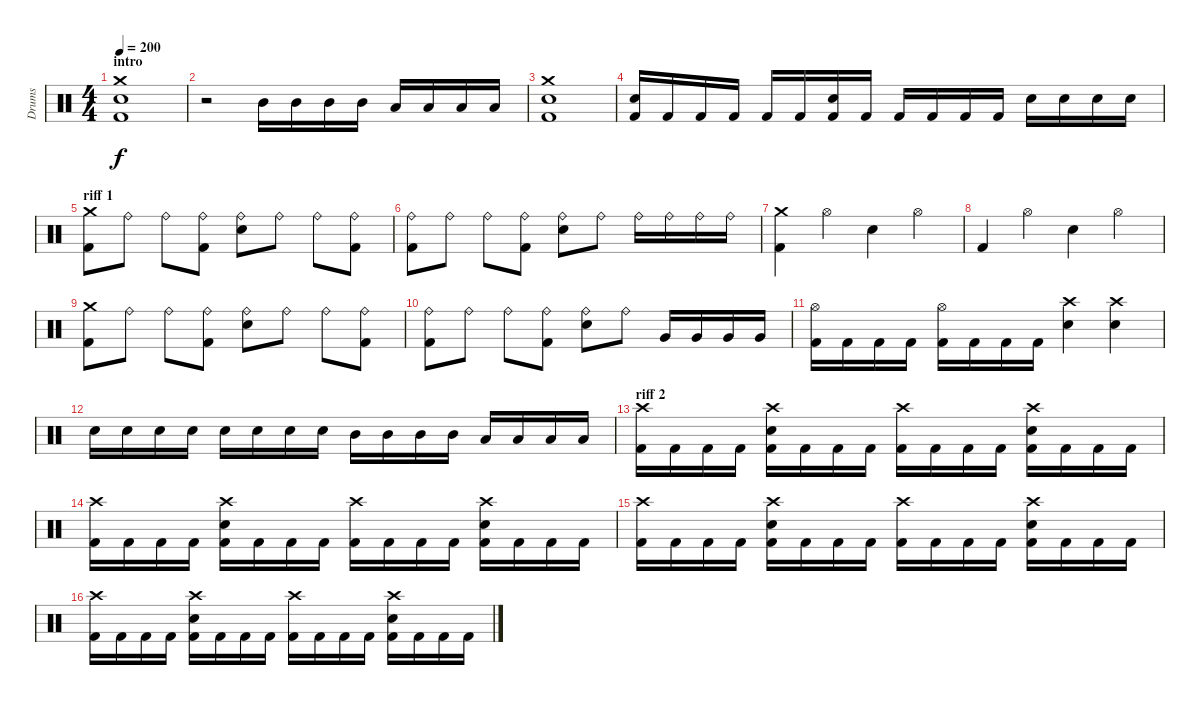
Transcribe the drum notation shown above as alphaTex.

\track ("Drums" "Drums") {instrument percussion}
\staff {score}
\articulation defaults
\ts (4 4)
\section ("" "intro")
\tempo 200
\clef neutral
\ks c
("Crash medium (hit)" "Electric Snare (hit)" "Kick (hit) 2").1{dy f} |
r.2 "Mid Tom (hit)".16 "Mid Tom (hit)".16 "Mid Tom (hit)".16 "Mid Tom (hit)".16 "Low Tom (hit)".16 "Low Tom (hit)".16 "Low Tom (hit)".16 "Low Tom (hit)".16 |
("Crash medium (hit)" "Electric Snare (hit)" "Kick (hit) 2").1 |
("Electric Snare (hit)" "Kick (hit) 2").16 "Kick (hit) 2".16 "Kick (hit) 2".16 "Kick (hit) 2".16 "Kick (hit) 2".16 "Kick (hit) 2".16 ("Electric Snare (hit)" "Kick (hit) 2").16 "Kick (hit) 2".16 "Kick (hit) 2".16 "Kick (hit) 2".16 "Kick (hit) 2".16 "Kick (hit) 2".16 "Electric Snare (hit)".16 "Electric Snare (hit)".16 "Electric Snare (hit)".16 "Electric Snare (hit)".16 |
\section ("" "riff 1")
("Crash medium (hit)" "Kick (hit) 2").8 "Ride (bell)".8 "Ride (bell)".8 ("Ride (bell)" "Kick (hit) 2").8 ("Ride (bell)" "Electric Snare (hit)").8 "Ride (bell)".8 "Ride (bell)".8 ("Ride (bell)" "Kick (hit) 2").8 |
("Ride (bell)" "Kick (hit) 2").8 "Ride (bell)".8 "Ride (bell)".8 ("Ride (bell)" "Kick (hit) 2").8 ("Ride (bell)" "Electric Snare (hit)").8 "Ride (bell)".8 "Ride (bell)".16 "Ride (bell)".16 "Ride (bell)".16 "Ride (bell)".16 |
("Crash medium (hit)" "Kick (hit) 2").4 "Hi-Hat (open)".4 "Electric Snare (hit)".4 "Hi-Hat (open)".4 |
"Kick (hit) 2".4 "Hi-Hat (open)".4 "Electric Snare (hit)".4 "Hi-Hat (open)".4 |
("Crash medium (hit)" "Kick (hit) 2").8 "Ride (bell)".8 "Ride (bell)".8 ("Ride (bell)" "Kick (hit) 2").8 ("Ride (bell)" "Electric Snare (hit)").8 "Ride (bell)".8 "Ride (bell)".8 ("Ride (bell)" "Kick (hit) 2").8 |
("Ride (bell)" "Kick (hit) 2").8 "Ride (bell)".8 "Ride (bell)".8 ("Ride (bell)" "Kick (hit) 2").8 ("Ride (bell)" "Electric Snare (hit)").8 "Ride (bell)".8 "Very Low Tom (hit)".16 "Very Low Tom (hit)".16 "Very Low Tom (hit)".16 "Very Low Tom (hit)".16 |
("Hi-Hat (open)" "Kick (hit) 2").16 "Kick (hit) 2".16 "Kick (hit) 2".16 "Kick (hit) 2".16 ("Hi-Hat (open)" "Kick (hit) 2").16 "Kick (hit) 2".16 "Kick (hit) 2".16 "Kick (hit) 2".16 ("Crash high (hit)" "Electric Snare (hit)").4 ("Crash high (hit)" "Electric Snare (hit)").4 |
"Electric Snare (hit)".16 "Electric Snare (hit)".16 "Electric Snare (hit)".16 "Electric Snare (hit)".16 "Electric Snare (hit)".16 "Electric Snare (hit)".16 "Electric Snare (hit)".16 "Electric Snare (hit)".16 "Mid Tom (hit)".16 "Mid Tom (hit)".16 "Mid Tom (hit)".16 "Mid Tom (hit)".16 "Low Tom (hit)".16 "Low Tom (hit)".16 "Low Tom (hit)".16 "Low Tom (hit)".16 |
\section ("" "riff 2")
("Crash high (hit)" "Kick (hit) 2").16 "Kick (hit) 2".16 "Kick (hit) 2".16 "Kick (hit) 2".16 ("Crash high (hit)" "Electric Snare (hit)" "Kick (hit) 2").16 "Kick (hit) 2".16 "Kick (hit) 2".16 "Kick (hit) 2".16 ("Crash high (hit)" "Kick (hit) 2").16 "Kick (hit) 2".16 "Kick (hit) 2".16 "Kick (hit) 2".16 ("Crash high (hit)" "Electric Snare (hit)" "Kick (hit) 2").16 "Kick (hit) 2".16 "Kick (hit) 2".16 "Kick (hit) 2".16 |
("Crash high (hit)" "Kick (hit) 2").16 "Kick (hit) 2".16 "Kick (hit) 2".16 "Kick (hit) 2".16 ("Crash high (hit)" "Electric Snare (hit)" "Kick (hit) 2").16 "Kick (hit) 2".16 "Kick (hit) 2".16 "Kick (hit) 2".16 ("Crash high (hit)" "Kick (hit) 2").16 "Kick (hit) 2".16 "Kick (hit) 2".16 "Kick (hit) 2".16 ("Crash high (hit)" "Electric Snare (hit)" "Kick (hit) 2").16 "Kick (hit) 2".16 "Kick (hit) 2".16 "Kick (hit) 2".16 |
("Crash high (hit)" "Kick (hit) 2").16 "Kick (hit) 2".16 "Kick (hit) 2".16 "Kick (hit) 2".16 ("Crash high (hit)" "Electric Snare (hit)" "Kick (hit) 2").16 "Kick (hit) 2".16 "Kick (hit) 2".16 "Kick (hit) 2".16 ("Crash high (hit)" "Kick (hit) 2").16 "Kick (hit) 2".16 "Kick (hit) 2".16 "Kick (hit) 2".16 ("Crash high (hit)" "Electric Snare (hit)" "Kick (hit) 2").16 "Kick (hit) 2".16 "Kick (hit) 2".16 "Kick (hit) 2".16 |
("Crash high (hit)" "Kick (hit) 2").16 "Kick (hit) 2".16 "Kick (hit) 2".16 "Kick (hit) 2".16 ("Crash high (hit)" "Electric Snare (hit)" "Kick (hit) 2").16 "Kick (hit) 2".16 "Kick (hit) 2".16 "Kick (hit) 2".16 ("Crash high (hit)" "Kick (hit) 2").16 "Kick (hit) 2".16 "Kick (hit) 2".16 "Kick (hit) 2".16 ("Crash high (hit)" "Electric Snare (hit)" "Kick (hit) 2").16 "Kick (hit) 2".16 "Kick (hit) 2".16 "Kick (hit) 2".16
